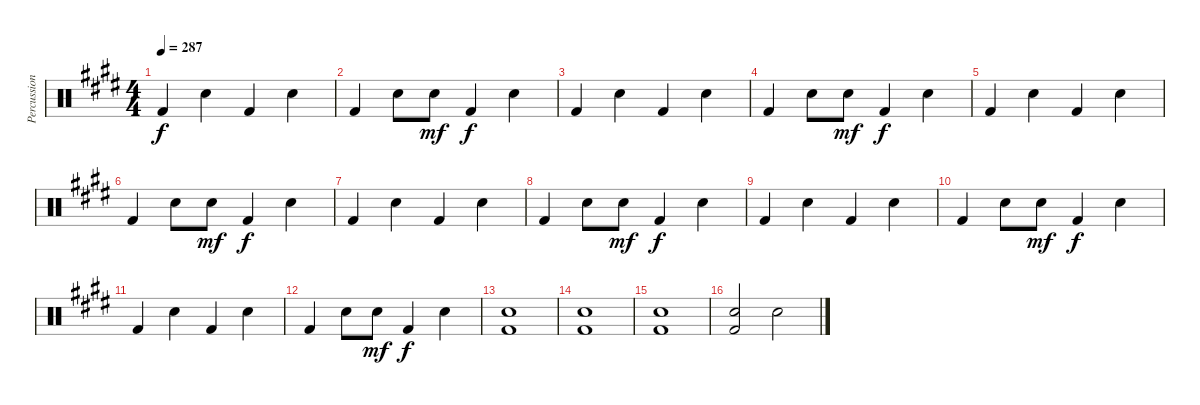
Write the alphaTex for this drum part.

\track ("Percussion" "Percussion") {instrument percussion}
\staff {score}
\articulation defaults
\ts (4 4)
\tempo 287
\clef neutral
\ks c#minor "Kick (hit) 2".4{dy f} "Electric Snare (hit)".4 "Kick (hit) 2".4 "Electric Snare (hit)".4
|
"Kick (hit) 2".4 "Electric Snare (hit)".8 "Electric Snare (hit)".8{dy mf} "Kick (hit) 2".4{dy f} "Electric Snare (hit)".4 |
"Kick (hit) 2".4 "Electric Snare (hit)".4 "Kick (hit) 2".4 "Electric Snare (hit)".4 |
"Kick (hit) 2".4 "Electric Snare (hit)".8 "Electric Snare (hit)".8{dy mf} "Kick (hit) 2".4{dy f} "Electric Snare (hit)".4 |
"Kick (hit) 2".4 "Electric Snare (hit)".4 "Kick (hit) 2".4 "Electric Snare (hit)".4 |
"Kick (hit) 2".4 "Electric Snare (hit)".8 "Electric Snare (hit)".8{dy mf} "Kick (hit) 2".4{dy f} "Electric Snare (hit)".4 |
"Kick (hit) 2".4 "Electric Snare (hit)".4 "Kick (hit) 2".4 "Electric Snare (hit)".4 |
"Kick (hit) 2".4 "Electric Snare (hit)".8 "Electric Snare (hit)".8{dy mf} "Kick (hit) 2".4{dy f} "Electric Snare (hit)".4 |
"Kick (hit) 2".4 "Electric Snare (hit)".4 "Kick (hit) 2".4 "Electric Snare (hit)".4 |
"Kick (hit) 2".4 "Electric Snare (hit)".8 "Electric Snare (hit)".8{dy mf} "Kick (hit) 2".4{dy f} "Electric Snare (hit)".4 |
"Kick (hit) 2".4 "Electric Snare (hit)".4 "Kick (hit) 2".4 "Electric Snare (hit)".4 |
"Kick (hit) 2".4 "Electric Snare (hit)".8 "Electric Snare (hit)".8{dy mf} "Kick (hit) 2".4{dy f} "Electric Snare (hit)".4 |
("Electric Snare (hit)" "Kick (hit) 2").1 |
("Electric Snare (hit)" "Kick (hit) 2").1 |
("Electric Snare (hit)" "Kick (hit) 2").1 |
("Electric Snare (hit)" "Kick (hit) 2").2 "Electric Snare (hit)".2
